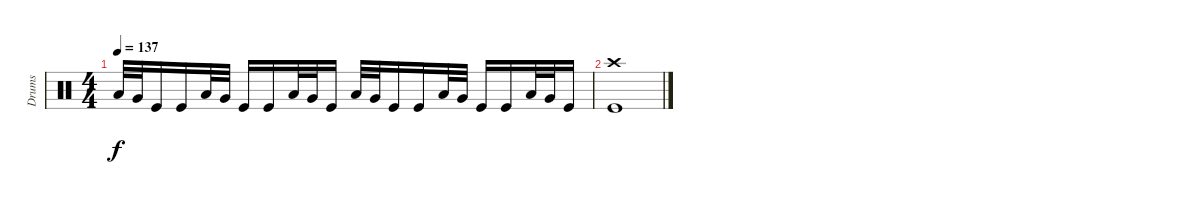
\track ("Drums" "Drums") {instrument percussion}
\staff {score}
\articulation defaults
\ts (4 4)
\tempo 137
\clef neutral
\ks c "Low Tom (hit)".32{dy f} "Very Low Tom (hit)".32 "Kick (hit)".16 "Kick (hit)".16 "Low Tom (hit)".32 "Very Low Tom (hit)".32 "Kick (hit)".16 "Kick (hit)".16 "Low Tom (hit)".32 "Very Low Tom (hit)".32 "Kick (hit)".16 "Low Tom (hit)".32 "Very Low Tom (hit)".32 "Kick (hit)".16 "Kick (hit)".16 "Low Tom (hit)".32 "Very Low Tom (hit)".32 "Kick (hit)".16 "Kick (hit)".16 "Low Tom (hit)".32 "Very Low Tom (hit)".32 "Kick (hit)".16
|
("Crash high (hit)" "Kick (hit)").1
